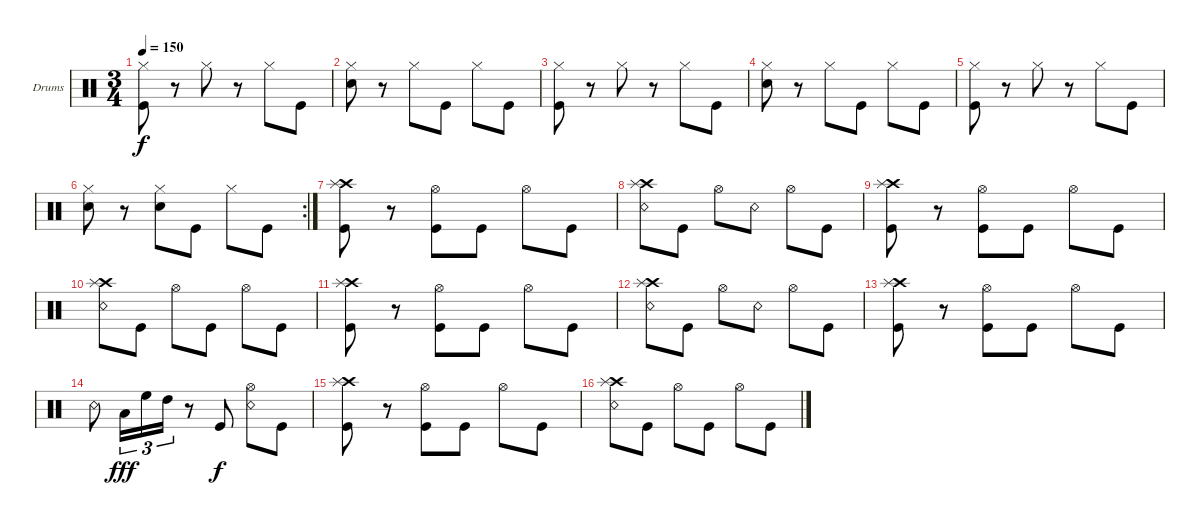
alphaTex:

\defaultSystemsLayout 4
\bracketExtendMode groupsimilarinstruments
\firstSystemTrackNameOrientation horizontal
\otherSystemsTrackNameOrientation horizontal
\track ("Scott" "Drums") {instrument percussion}
\staff {score}
\articulation defaults
\ts (3 4)
\tempo 150
\clef neutral
\scale
0.333333
\ks c
("Hi-Hat (closed)" "Kick (hit)").8{dy f} r.8 "Hi-Hat (closed)".8 r.8 "Hi-Hat (closed)".8 "Kick (hit)".8 |
\scale
0.333333 ("Snare (hit) 2" "Hi-Hat (closed)").8 r.8 "Hi-Hat (closed)".8 "Kick (hit)".8 "Hi-Hat (closed)".8 "Kick (hit)".8 |
\scale
0.333333 ("Hi-Hat (closed)" "Kick (hit)").8 r.8 "Hi-Hat (closed)".8 r.8 "Hi-Hat (closed)".8 "Kick (hit)".8 |
\scale
0.333333 ("Snare (hit) 2" "Hi-Hat (closed)").8 r.8 "Hi-Hat (closed)".8 "Kick (hit)".8 "Hi-Hat (closed)".8 "Kick (hit)".8 |
\scale
0.333333 ("Hi-Hat (closed)" "Kick (hit)").8 r.8 "Hi-Hat (closed)".8 r.8 "Hi-Hat (closed)".8 "Kick (hit)".8 |
\rc 2
\scale
0.355932 ("Hi-Hat (closed)" "Snare (hit) 2").8 r.8 ("Snare (hit) 2" "Hi-Hat (closed)").8 "Kick (hit)".8 "Hi-Hat (closed)".8 "Kick (hit)".8 |
\scale
0.322034 ("Kick (hit)" "Crash high (hit)" "Splash (hit)").8 r.8 ("Kick (hit)" "Hi-Hat (open)").8 "Kick (hit)".8 "Hi-Hat (open)".8 "Kick (hit)".8 |
\scale
0.322034 ("Snare (rim shot)" "Crash high (hit)" "Splash (hit)").8 "Kick (hit)".8 "Hi-Hat (open)".8 "Snare (rim shot)".8 "Hi-Hat (open)".8 "Kick (hit)".8 |
\scale
0.333333 ("Kick (hit)" "Crash high (hit)" "Splash (hit)").8 r.8 ("Kick (hit)" "Hi-Hat (open)").8 "Kick (hit)".8 "Hi-Hat (open)".8 "Kick (hit)".8 |
\scale
0.333333 ("Snare (rim shot)" "Crash high (hit)" "Splash (hit)").8 "Kick (hit)".8 "Hi-Hat (open)".8 "Kick (hit)".8 "Hi-Hat (open)".8 "Kick (hit)".8 |
\scale
0.333333 ("Kick (hit)" "Crash high (hit)" "Splash (hit)").8 r.8 ("Kick (hit)" "Hi-Hat (open)").8 "Kick (hit)".8 "Hi-Hat (open)".8 "Kick (hit)".8 |
\scale
0.333333 ("Snare (rim shot)" "Crash high (hit)" "Splash (hit)").8 "Kick (hit)".8 "Hi-Hat (open)".8 "Snare (rim shot)".8 "Hi-Hat (open)".8 "Kick (hit)".8 |
\scale
0.333333 ("Kick (hit)" "Crash high (hit)" "Splash (hit)").8 r.8 ("Kick (hit)" "Hi-Hat (open)").8 "Kick (hit)".8 "Hi-Hat (open)".8 "Kick (hit)".8 |
\scale
0.333333 "Snare (rim shot)".8 "Low Tom (hit)".16{tu (3 2) dy fff} "High Floor Tom (hit)".16{tu (3 2)} "High Tom (hit)".16{tu (3 2)} r.8 "Kick (hit)".8{dy f} ("Snare (rim shot)" "Hi-Hat (open)").8 "Kick (hit)".8 |
\scale
0.333333 ("Kick (hit)" "Crash high (hit)" "Splash (hit)").8 r.8 ("Kick (hit)" "Hi-Hat (open)").8 "Kick (hit)".8 "Hi-Hat (open)".8 "Kick (hit)".8 |
\scale
0.333333 ("Snare (rim shot)" "Crash high (hit)" "Splash (hit)").8 "Kick (hit)".8 "Hi-Hat (open)".8 "Kick (hit)".8 "Hi-Hat (open)".8 "Kick (hit)".8
